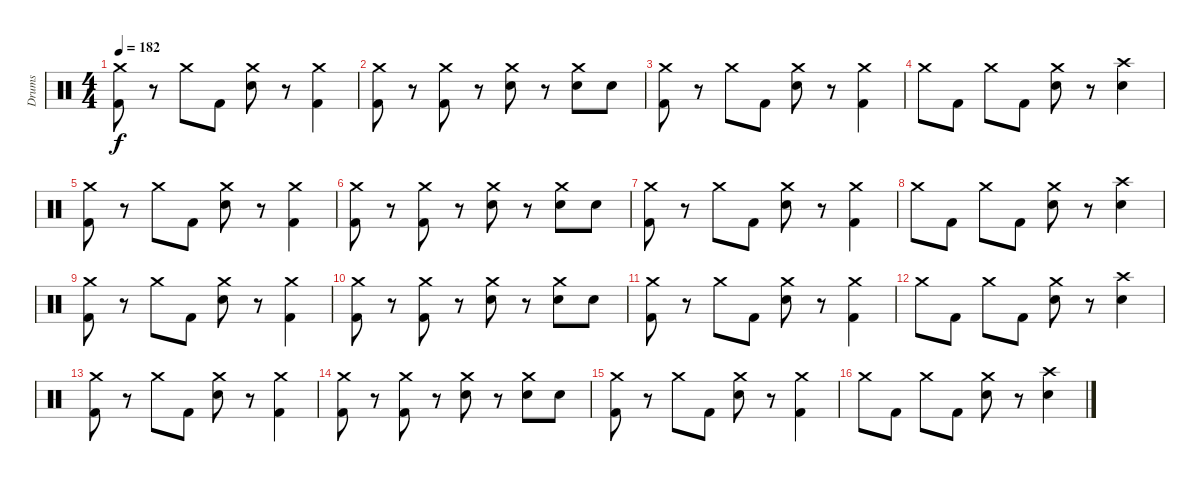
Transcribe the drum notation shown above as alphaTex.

\track ("Drums" "Drums") {instrument percussion}
\staff
\articulation defaults
\ts (4 4)
\tempo 182
\clef neutral
\ks c
("Crash medium (hit)" "Kick (hit) 2").8{dy f} r.8 "Crash medium (hit)".8 "Kick (hit) 2".8 ("Crash medium (hit)" "Electric Snare (hit)").8 r.8 ("Crash medium (hit)" "Kick (hit) 2").4 |
("Crash medium (hit)" "Kick (hit) 2").8 r.8 ("Crash medium (hit)" "Kick (hit) 2").8 r.8 ("Crash medium (hit)" "Electric Snare (hit)").8 r.8 ("Crash medium (hit)" "Electric Snare (hit)").8 "Electric Snare (hit)".8 |
("Crash medium (hit)" "Kick (hit) 2").8 r.8 "Crash medium (hit)".8 "Kick (hit) 2".8 ("Crash medium (hit)" "Electric Snare (hit)").8 r.8 ("Crash medium (hit)" "Kick (hit) 2").4 |
"Crash medium (hit)".8 "Kick (hit) 2".8 "Crash medium (hit)".8 "Kick (hit) 2".8 ("Crash medium (hit)" "Electric Snare (hit)").8 r.8 ("Crash high (hit)" "Electric Snare (hit)").4 |
("Crash medium (hit)" "Kick (hit) 2").8 r.8 "Crash medium (hit)".8 "Kick (hit) 2".8 ("Crash medium (hit)" "Electric Snare (hit)").8 r.8 ("Crash medium (hit)" "Kick (hit) 2").4 |
("Crash medium (hit)" "Kick (hit) 2").8 r.8 ("Crash medium (hit)" "Kick (hit) 2").8 r.8 ("Crash medium (hit)" "Electric Snare (hit)").8 r.8 ("Crash medium (hit)" "Electric Snare (hit)").8 "Electric Snare (hit)".8 |
("Crash medium (hit)" "Kick (hit) 2").8 r.8 "Crash medium (hit)".8 "Kick (hit) 2".8 ("Crash medium (hit)" "Electric Snare (hit)").8 r.8 ("Crash medium (hit)" "Kick (hit) 2").4 |
"Crash medium (hit)".8 "Kick (hit) 2".8 "Crash medium (hit)".8 "Kick (hit) 2".8 ("Crash medium (hit)" "Electric Snare (hit)").8 r.8 ("Crash high (hit)" "Electric Snare (hit)").4 |
("Crash medium (hit)" "Kick (hit) 2").8 r.8 "Crash medium (hit)".8 "Kick (hit) 2".8 ("Crash medium (hit)" "Electric Snare (hit)").8 r.8 ("Crash medium (hit)" "Kick (hit) 2").4 |
("Crash medium (hit)" "Kick (hit) 2").8 r.8 ("Crash medium (hit)" "Kick (hit) 2").8 r.8 ("Crash medium (hit)" "Electric Snare (hit)").8 r.8 ("Crash medium (hit)" "Electric Snare (hit)").8 "Electric Snare (hit)".8 |
("Crash medium (hit)" "Kick (hit) 2").8 r.8 "Crash medium (hit)".8 "Kick (hit) 2".8 ("Crash medium (hit)" "Electric Snare (hit)").8 r.8 ("Crash medium (hit)" "Kick (hit) 2").4 |
"Crash medium (hit)".8 "Kick (hit) 2".8 "Crash medium (hit)".8 "Kick (hit) 2".8 ("Crash medium (hit)" "Electric Snare (hit)").8 r.8 ("Crash high (hit)" "Electric Snare (hit)").4 |
("Crash medium (hit)" "Kick (hit) 2").8 r.8 "Crash medium (hit)".8 "Kick (hit) 2".8 ("Crash medium (hit)" "Electric Snare (hit)").8 r.8 ("Crash medium (hit)" "Kick (hit) 2").4 |
("Crash medium (hit)" "Kick (hit) 2").8 r.8 ("Crash medium (hit)" "Kick (hit) 2").8 r.8 ("Crash medium (hit)" "Electric Snare (hit)").8 r.8 ("Crash medium (hit)" "Electric Snare (hit)").8 "Electric Snare (hit)".8 |
("Crash medium (hit)" "Kick (hit) 2").8 r.8 "Crash medium (hit)".8 "Kick (hit) 2".8 ("Crash medium (hit)" "Electric Snare (hit)").8 r.8 ("Crash medium (hit)" "Kick (hit) 2").4 |
"Crash medium (hit)".8 "Kick (hit) 2".8 "Crash medium (hit)".8 "Kick (hit) 2".8 ("Crash medium (hit)" "Electric Snare (hit)").8 r.8 ("Crash high (hit)" "Electric Snare (hit)").4
